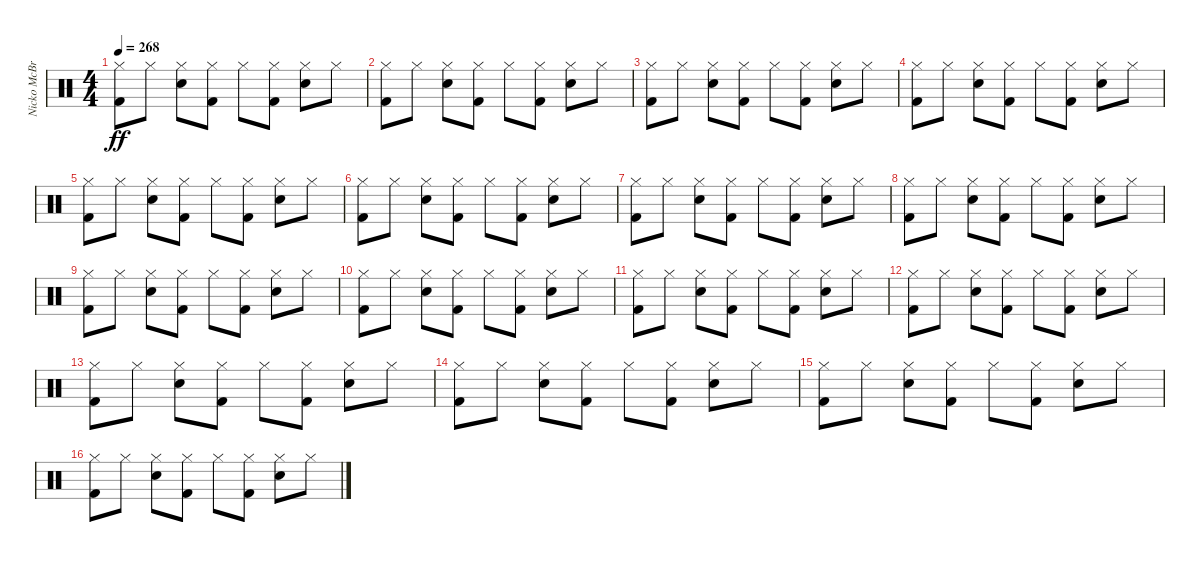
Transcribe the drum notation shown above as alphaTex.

\track ("Nicko McBrain" "Nicko McBr") {instrument percussion}
\staff {score}
\articulation defaults
\ts (4 4)
\tempo 268
\clef neutral
\ks c
("Kick (hit) 2" "Hi-Hat (closed)").8{dy ff} "Hi-Hat (closed)".8 ("Snare (hit) 2" "Hi-Hat (closed)").8 ("Kick (hit) 2" "Hi-Hat (closed)").8 "Hi-Hat (closed)".8 ("Kick (hit) 2" "Hi-Hat (closed)").8 ("Snare (hit) 2" "Hi-Hat (closed)").8 "Hi-Hat (closed)".8 |
("Kick (hit) 2" "Hi-Hat (closed)").8 "Hi-Hat (closed)".8 ("Snare (hit) 2" "Hi-Hat (closed)").8 ("Kick (hit) 2" "Hi-Hat (closed)").8 "Hi-Hat (closed)".8 ("Kick (hit) 2" "Hi-Hat (closed)").8 ("Snare (hit) 2" "Hi-Hat (closed)").8 "Hi-Hat (closed)".8 |
("Kick (hit) 2" "Hi-Hat (closed)").8 "Hi-Hat (closed)".8 ("Snare (hit) 2" "Hi-Hat (closed)").8 ("Kick (hit) 2" "Hi-Hat (closed)").8 "Hi-Hat (closed)".8 ("Kick (hit) 2" "Hi-Hat (closed)").8 ("Snare (hit) 2" "Hi-Hat (closed)").8 "Hi-Hat (closed)".8 |
("Kick (hit) 2" "Hi-Hat (closed)").8 "Hi-Hat (closed)".8 ("Snare (hit) 2" "Hi-Hat (closed)").8 ("Kick (hit) 2" "Hi-Hat (closed)").8 "Hi-Hat (closed)".8 ("Kick (hit) 2" "Hi-Hat (closed)").8 ("Snare (hit) 2" "Hi-Hat (closed)").8 "Hi-Hat (closed)".8 |
("Kick (hit) 2" "Hi-Hat (closed)").8 "Hi-Hat (closed)".8 ("Snare (hit) 2" "Hi-Hat (closed)").8 ("Kick (hit) 2" "Hi-Hat (closed)").8 "Hi-Hat (closed)".8 ("Kick (hit) 2" "Hi-Hat (closed)").8 ("Snare (hit) 2" "Hi-Hat (closed)").8 "Hi-Hat (closed)".8 |
("Kick (hit) 2" "Hi-Hat (closed)").8 "Hi-Hat (closed)".8 ("Snare (hit) 2" "Hi-Hat (closed)").8 ("Kick (hit) 2" "Hi-Hat (closed)").8 "Hi-Hat (closed)".8 ("Kick (hit) 2" "Hi-Hat (closed)").8 ("Snare (hit) 2" "Hi-Hat (closed)").8 "Hi-Hat (closed)".8 |
("Kick (hit) 2" "Hi-Hat (closed)").8 "Hi-Hat (closed)".8 ("Snare (hit) 2" "Hi-Hat (closed)").8 ("Kick (hit) 2" "Hi-Hat (closed)").8 "Hi-Hat (closed)".8 ("Kick (hit) 2" "Hi-Hat (closed)").8 ("Snare (hit) 2" "Hi-Hat (closed)").8 "Hi-Hat (closed)".8 |
("Kick (hit) 2" "Hi-Hat (closed)").8 "Hi-Hat (closed)".8 ("Snare (hit) 2" "Hi-Hat (closed)").8 ("Kick (hit) 2" "Hi-Hat (closed)").8 "Hi-Hat (closed)".8 ("Kick (hit) 2" "Hi-Hat (closed)").8 ("Snare (hit) 2" "Hi-Hat (closed)").8 "Hi-Hat (closed)".8 |
("Kick (hit) 2" "Hi-Hat (closed)").8 "Hi-Hat (closed)".8 ("Snare (hit) 2" "Hi-Hat (closed)").8 ("Kick (hit) 2" "Hi-Hat (closed)").8 "Hi-Hat (closed)".8 ("Kick (hit) 2" "Hi-Hat (closed)").8 ("Snare (hit) 2" "Hi-Hat (closed)").8 "Hi-Hat (closed)".8 |
("Kick (hit) 2" "Hi-Hat (closed)").8 "Hi-Hat (closed)".8 ("Snare (hit) 2" "Hi-Hat (closed)").8 ("Kick (hit) 2" "Hi-Hat (closed)").8 "Hi-Hat (closed)".8 ("Kick (hit) 2" "Hi-Hat (closed)").8 ("Snare (hit) 2" "Hi-Hat (closed)").8 "Hi-Hat (closed)".8 |
("Kick (hit) 2" "Hi-Hat (closed)").8 "Hi-Hat (closed)".8 ("Snare (hit) 2" "Hi-Hat (closed)").8 ("Kick (hit) 2" "Hi-Hat (closed)").8 "Hi-Hat (closed)".8 ("Kick (hit) 2" "Hi-Hat (closed)").8 ("Snare (hit) 2" "Hi-Hat (closed)").8 "Hi-Hat (closed)".8 |
("Kick (hit) 2" "Hi-Hat (closed)").8 "Hi-Hat (closed)".8 ("Snare (hit) 2" "Hi-Hat (closed)").8 ("Kick (hit) 2" "Hi-Hat (closed)").8 "Hi-Hat (closed)".8 ("Kick (hit) 2" "Hi-Hat (closed)").8 ("Snare (hit) 2" "Hi-Hat (closed)").8 "Hi-Hat (closed)".8 |
("Kick (hit) 2" "Hi-Hat (closed)").8 "Hi-Hat (closed)".8 ("Snare (hit) 2" "Hi-Hat (closed)").8 ("Kick (hit) 2" "Hi-Hat (closed)").8 "Hi-Hat (closed)".8 ("Kick (hit) 2" "Hi-Hat (closed)").8 ("Snare (hit) 2" "Hi-Hat (closed)").8 "Hi-Hat (closed)".8 |
("Kick (hit) 2" "Hi-Hat (closed)").8 "Hi-Hat (closed)".8 ("Snare (hit) 2" "Hi-Hat (closed)").8 ("Kick (hit) 2" "Hi-Hat (closed)").8 "Hi-Hat (closed)".8 ("Kick (hit) 2" "Hi-Hat (closed)").8 ("Snare (hit) 2" "Hi-Hat (closed)").8 "Hi-Hat (closed)".8 |
("Kick (hit) 2" "Hi-Hat (closed)").8 "Hi-Hat (closed)".8 ("Snare (hit) 2" "Hi-Hat (closed)").8 ("Kick (hit) 2" "Hi-Hat (closed)").8 "Hi-Hat (closed)".8 ("Kick (hit) 2" "Hi-Hat (closed)").8 ("Snare (hit) 2" "Hi-Hat (closed)").8 "Hi-Hat (closed)".8 |
("Kick (hit) 2" "Hi-Hat (closed)").8 "Hi-Hat (closed)".8 ("Snare (hit) 2" "Hi-Hat (closed)").8 ("Kick (hit) 2" "Hi-Hat (closed)").8 "Hi-Hat (closed)".8 ("Kick (hit) 2" "Hi-Hat (closed)").8 ("Snare (hit) 2" "Hi-Hat (closed)").8 "Hi-Hat (closed)".8
